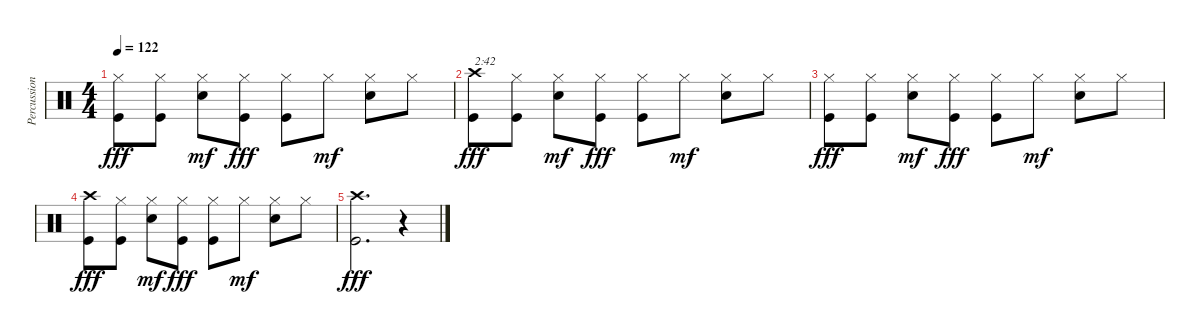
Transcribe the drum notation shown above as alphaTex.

\track ("Percussion" "Percussion") {instrument percussion}
\staff {score}
\articulation defaults
\ts (4 4)
\tempo 122
\clef neutral
\ks c
("Hi-Hat (closed)" "Kick (hit)").8{dy fff} ("Hi-Hat (closed)" "Kick (hit)").8 ("Hi-Hat (closed)" "Snare (hit) 2").8{dy mf} ("Hi-Hat (closed)" "Kick (hit)").8{dy fff} ("Hi-Hat (closed)" "Kick (hit)").8 "Hi-Hat (closed)".8{dy mf} ("Hi-Hat (closed)" "Snare (hit) 2").8 "Hi-Hat (closed)".8 |
("Crash high (hit)" "Kick (hit)").8{txt "2:42" dy fff} ("Hi-Hat (closed)" "Kick (hit)").8 ("Hi-Hat (closed)" "Snare (hit) 2").8{dy mf} ("Hi-Hat (closed)" "Kick (hit)").8{dy fff} ("Hi-Hat (closed)" "Kick (hit)").8 "Hi-Hat (closed)".8{dy mf} ("Hi-Hat (closed)" "Snare (hit) 2").8 "Hi-Hat (closed)".8 |
("Hi-Hat (closed)" "Kick (hit)").8{dy fff} ("Hi-Hat (closed)" "Kick (hit)").8 ("Hi-Hat (closed)" "Snare (hit) 2").8{dy mf} ("Hi-Hat (closed)" "Kick (hit)").8{dy fff} ("Hi-Hat (closed)" "Kick (hit)").8 "Hi-Hat (closed)".8{dy mf} ("Hi-Hat (closed)" "Snare (hit) 2").8 "Hi-Hat (closed)".8 |
("Crash high (hit)" "Kick (hit)").8{dy fff} ("Hi-Hat (closed)" "Kick (hit)").8 ("Hi-Hat (closed)" "Snare (hit) 2").8{dy mf} ("Hi-Hat (closed)" "Kick (hit)").8{dy fff} ("Hi-Hat (closed)" "Kick (hit)").8 "Hi-Hat (closed)".8{dy mf} ("Hi-Hat (closed)" "Snare (hit) 2").8 "Hi-Hat (closed)".8 |
("Crash high (hit)" "Kick (hit)").2{d dy fff} r.4
